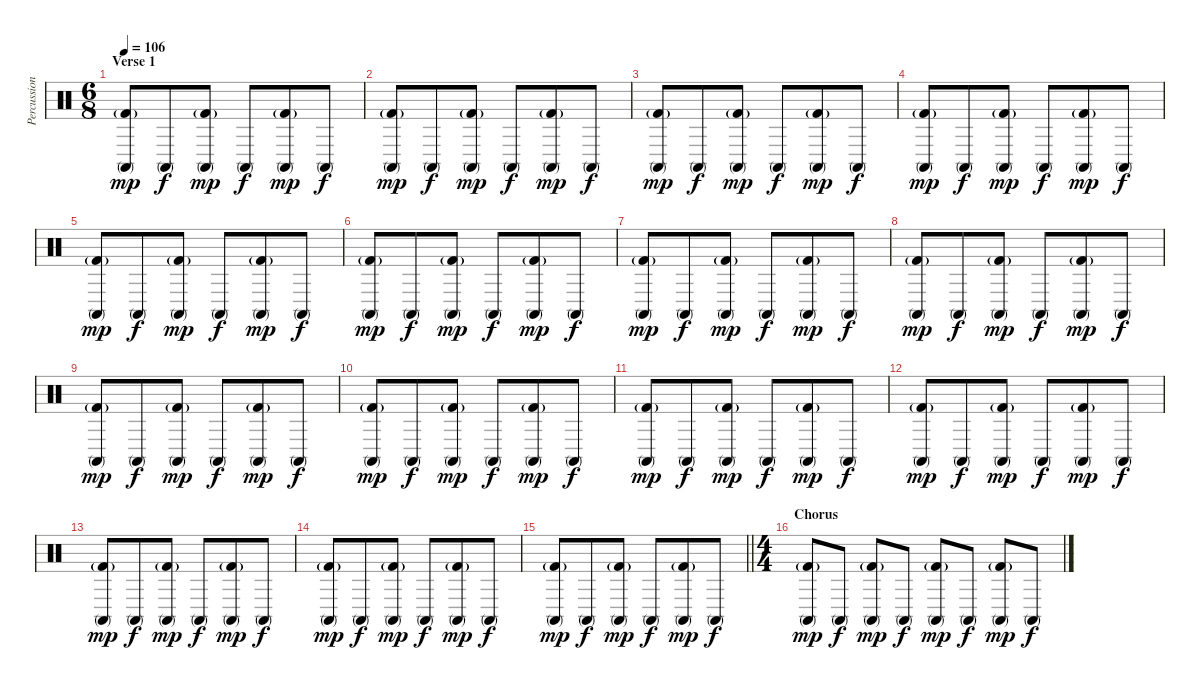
\track ("Percussion" "Percussion") {instrument percussion}
\staff {score}
\articulation defaults
\ts (6 8)
\section ("" "Verse 1")
\tempo 106
\clef neutral
\ks c
("Conga high (mute)" "Kick (hit) 2"{g}).8{dy mp} "Conga high (mute)".8{dy f} ("Conga high (mute)" "Kick (hit) 2"{g}).8{dy mp} "Conga high (mute)".8{dy f} ("Conga high (mute)" "Kick (hit) 2"{g}).8{dy mp} "Conga high (mute)".8{dy f} |
("Conga high (mute)" "Kick (hit) 2"{g}).8{dy mp} "Conga high (mute)".8{dy f} ("Conga high (mute)" "Kick (hit) 2"{g}).8{dy mp} "Conga high (mute)".8{dy f} ("Conga high (mute)" "Kick (hit) 2"{g}).8{dy mp} "Conga high (mute)".8{dy f} |
("Conga high (mute)" "Kick (hit) 2"{g}).8{dy mp} "Conga high (mute)".8{dy f} ("Conga high (mute)" "Kick (hit) 2"{g}).8{dy mp} "Conga high (mute)".8{dy f} ("Conga high (mute)" "Kick (hit) 2"{g}).8{dy mp} "Conga high (mute)".8{dy f} |
("Conga high (mute)" "Kick (hit) 2"{g}).8{dy mp} "Conga high (mute)".8{dy f} ("Conga high (mute)" "Kick (hit) 2"{g}).8{dy mp} "Conga high (mute)".8{dy f} ("Conga high (mute)" "Kick (hit) 2"{g}).8{dy mp} "Conga high (mute)".8{dy f} |
("Conga high (mute)" "Kick (hit) 2"{g}).8{dy mp} "Conga high (mute)".8{dy f} ("Conga high (mute)" "Kick (hit) 2"{g}).8{dy mp} "Conga high (mute)".8{dy f} ("Conga high (mute)" "Kick (hit) 2"{g}).8{dy mp} "Conga high (mute)".8{dy f} |
("Conga high (mute)" "Kick (hit) 2"{g}).8{dy mp} "Conga high (mute)".8{dy f} ("Conga high (mute)" "Kick (hit) 2"{g}).8{dy mp} "Conga high (mute)".8{dy f} ("Conga high (mute)" "Kick (hit) 2"{g}).8{dy mp} "Conga high (mute)".8{dy f} |
("Conga high (mute)" "Kick (hit) 2"{g}).8{dy mp} "Conga high (mute)".8{dy f} ("Conga high (mute)" "Kick (hit) 2"{g}).8{dy mp} "Conga high (mute)".8{dy f} ("Conga high (mute)" "Kick (hit) 2"{g}).8{dy mp} "Conga high (mute)".8{dy f} |
("Conga high (mute)" "Kick (hit) 2"{g}).8{dy mp} "Conga high (mute)".8{dy f} ("Conga high (mute)" "Kick (hit) 2"{g}).8{dy mp} "Conga high (mute)".8{dy f} ("Conga high (mute)" "Kick (hit) 2"{g}).8{dy mp} "Conga high (mute)".8{dy f} |
("Conga high (mute)" "Kick (hit) 2"{g}).8{dy mp} "Conga high (mute)".8{dy f} ("Conga high (mute)" "Kick (hit) 2"{g}).8{dy mp} "Conga high (mute)".8{dy f} ("Conga high (mute)" "Kick (hit) 2"{g}).8{dy mp} "Conga high (mute)".8{dy f} |
("Conga high (mute)" "Kick (hit) 2"{g}).8{dy mp} "Conga high (mute)".8{dy f} ("Conga high (mute)" "Kick (hit) 2"{g}).8{dy mp} "Conga high (mute)".8{dy f} ("Conga high (mute)" "Kick (hit) 2"{g}).8{dy mp} "Conga high (mute)".8{dy f} |
("Conga high (mute)" "Kick (hit) 2"{g}).8{dy mp} "Conga high (mute)".8{dy f} ("Conga high (mute)" "Kick (hit) 2"{g}).8{dy mp} "Conga high (mute)".8{dy f} ("Conga high (mute)" "Kick (hit) 2"{g}).8{dy mp} "Conga high (mute)".8{dy f} |
("Conga high (mute)" "Kick (hit) 2"{g}).8{dy mp} "Conga high (mute)".8{dy f} ("Conga high (mute)" "Kick (hit) 2"{g}).8{dy mp} "Conga high (mute)".8{dy f} ("Conga high (mute)" "Kick (hit) 2"{g}).8{dy mp} "Conga high (mute)".8{dy f} |
("Conga high (mute)" "Kick (hit) 2"{g}).8{dy mp} "Conga high (mute)".8{dy f} ("Conga high (mute)" "Kick (hit) 2"{g}).8{dy mp} "Conga high (mute)".8{dy f} ("Conga high (mute)" "Kick (hit) 2"{g}).8{dy mp} "Conga high (mute)".8{dy f} |
("Conga high (mute)" "Kick (hit) 2"{g}).8{dy mp} "Conga high (mute)".8{dy f} ("Conga high (mute)" "Kick (hit) 2"{g}).8{dy mp} "Conga high (mute)".8{dy f} ("Conga high (mute)" "Kick (hit) 2"{g}).8{dy mp} "Conga high (mute)".8{dy f} |
\barLineRight lightlight
("Conga high (mute)" "Kick (hit) 2"{g}).8{dy mp} "Conga high (mute)".8{dy f} ("Conga high (mute)" "Kick (hit) 2"{g}).8{dy mp} "Conga high (mute)".8{dy f} ("Conga high (mute)" "Kick (hit) 2"{g}).8{dy mp} "Conga high (mute)".8{dy f} |
\ts (4 4)
\section ("" "Chorus")
("Conga high (mute)" "Kick (hit) 2"{g}).8{dy mp} "Conga high (mute)".8{dy f} ("Conga high (mute)" "Kick (hit) 2"{g}).8{dy mp} "Conga high (mute)".8{dy f} ("Conga high (mute)" "Kick (hit) 2"{g}).8{dy mp} "Conga high (mute)".8{dy f} ("Conga high (mute)" "Kick (hit) 2"{g}).8{dy mp} "Conga high (mute)".8{dy f}
